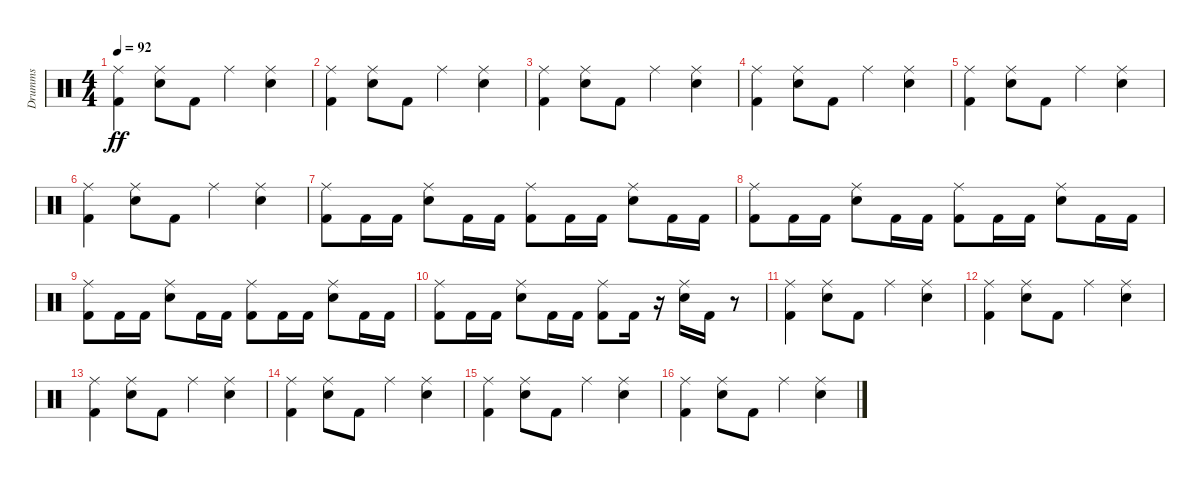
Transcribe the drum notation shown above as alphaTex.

\track ("Drumms" "Drumms") {instrument percussion}
\staff {score}
\articulation defaults
\ts (4 4)
\tempo 92
\clef neutral
\ks c
("Ride (middle)" "Kick (hit) 2").4{dy ff} ("Ride (middle)" "Electric Snare (hit)").8 "Kick (hit) 2".8 "Ride (middle)".4 ("Ride (middle)" "Electric Snare (hit)").4 |
("Ride (middle)" "Kick (hit) 2").4 ("Ride (middle)" "Electric Snare (hit)").8 "Kick (hit) 2".8 "Ride (middle)".4 ("Ride (middle)" "Electric Snare (hit)").4 |
("Ride (middle)" "Kick (hit) 2").4 ("Ride (middle)" "Electric Snare (hit)").8 "Kick (hit) 2".8 "Ride (middle)".4 ("Ride (middle)" "Electric Snare (hit)").4 |
("Ride (middle)" "Kick (hit) 2").4 ("Ride (middle)" "Electric Snare (hit)").8 "Kick (hit) 2".8 "Ride (middle)".4 ("Ride (middle)" "Electric Snare (hit)").4 |
("Ride (middle)" "Kick (hit) 2").4 ("Ride (middle)" "Electric Snare (hit)").8 "Kick (hit) 2".8 "Ride (middle)".4 ("Ride (middle)" "Electric Snare (hit)").4 |
("Ride (middle)" "Kick (hit) 2").4 ("Ride (middle)" "Electric Snare (hit)").8 "Kick (hit) 2".8 "Ride (middle)".4 ("Ride (middle)" "Electric Snare (hit)").4 |
("Ride (middle)" "Kick (hit) 2").8 "Kick (hit) 2".16 "Kick (hit) 2".16 ("Ride (middle)" "Electric Snare (hit)").8 "Kick (hit) 2".16 "Kick (hit) 2".16 ("Ride (middle)" "Kick (hit) 2").8 "Kick (hit) 2".16 "Kick (hit) 2".16 ("Ride (middle)" "Electric Snare (hit)").8 "Kick (hit) 2".16 "Kick (hit) 2".16 |
("Ride (middle)" "Kick (hit) 2").8 "Kick (hit) 2".16 "Kick (hit) 2".16 ("Ride (middle)" "Electric Snare (hit)").8 "Kick (hit) 2".16 "Kick (hit) 2".16 ("Ride (middle)" "Kick (hit) 2").8 "Kick (hit) 2".16 "Kick (hit) 2".16 ("Ride (middle)" "Electric Snare (hit)").8 "Kick (hit) 2".16 "Kick (hit) 2".16 |
("Ride (middle)" "Kick (hit) 2").8 "Kick (hit) 2".16 "Kick (hit) 2".16 ("Ride (middle)" "Electric Snare (hit)").8 "Kick (hit) 2".16 "Kick (hit) 2".16 ("Ride (middle)" "Kick (hit) 2").8 "Kick (hit) 2".16 "Kick (hit) 2".16 ("Ride (middle)" "Electric Snare (hit)").8 "Kick (hit) 2".16 "Kick (hit) 2".16 |
("Ride (middle)" "Kick (hit) 2").8 "Kick (hit) 2".16 "Kick (hit) 2".16 ("Ride (middle)" "Electric Snare (hit)").8 "Kick (hit) 2".16 "Kick (hit) 2".16 ("Ride (middle)" "Kick (hit) 2").8 "Kick (hit) 2".16 r.16 ("Ride (middle)" "Electric Snare (hit)").16 "Kick (hit) 2".16 r.8 |
("Ride (middle)" "Kick (hit) 2").4 ("Ride (middle)" "Electric Snare (hit)").8 "Kick (hit) 2".8 "Ride (middle)".4 ("Ride (middle)" "Electric Snare (hit)").4 |
("Ride (middle)" "Kick (hit) 2").4 ("Ride (middle)" "Electric Snare (hit)").8 "Kick (hit) 2".8 "Ride (middle)".4 ("Ride (middle)" "Electric Snare (hit)").4 |
("Ride (middle)" "Kick (hit) 2").4 ("Ride (middle)" "Electric Snare (hit)").8 "Kick (hit) 2".8 "Ride (middle)".4 ("Ride (middle)" "Electric Snare (hit)").4 |
("Ride (middle)" "Kick (hit) 2").4 ("Ride (middle)" "Electric Snare (hit)").8 "Kick (hit) 2".8 "Ride (middle)".4 ("Ride (middle)" "Electric Snare (hit)").4 |
("Ride (middle)" "Kick (hit) 2").4 ("Ride (middle)" "Electric Snare (hit)").8 "Kick (hit) 2".8 "Ride (middle)".4 ("Ride (middle)" "Electric Snare (hit)").4 |
("Ride (middle)" "Kick (hit) 2").4 ("Ride (middle)" "Electric Snare (hit)").8 "Kick (hit) 2".8 "Ride (middle)".4 ("Ride (middle)" "Electric Snare (hit)").4
